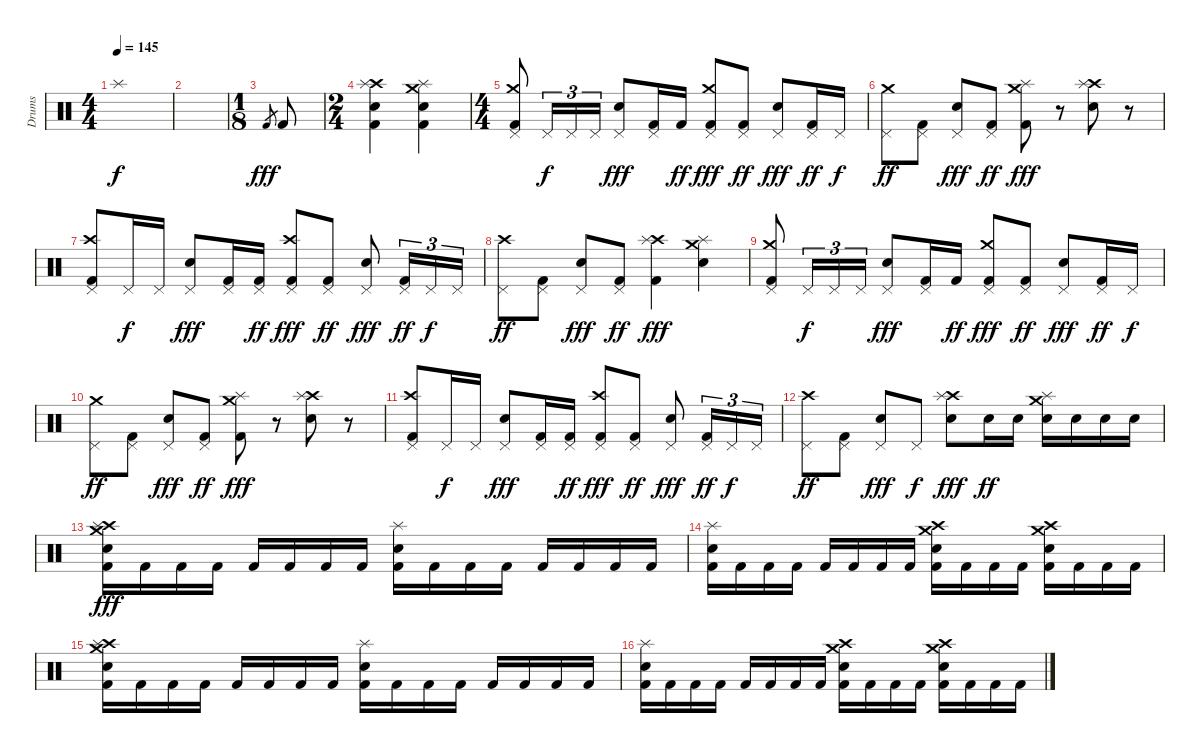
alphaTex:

\track ("Drums" "Drums") {instrument percussion}
\staff {score}
\articulation defaults
\ts (4 4)
\tempo 145
\clef neutral
\ks c "Splash (hit)".1{dy f}
|
|
\ts (1 8)
"Kick (hit) 2".8{gr dy fff} "Kick (hit) 2".8 |
\ts (2 4)
("Crash high (hit)" "Splash (hit)" "Snare (hit) 2" "Kick (hit) 2").4 ("Crash medium (hit)" "Splash (hit)" "Snare (hit) 2" "Kick (hit) 2").4 |
\ts (4 4)
("Crash medium (hit)" "Pedal Hi-Hat (hit)" "Kick (hit) 2").8 "Pedal Hi-Hat (hit)".16{tu (3 2) dy f} "Pedal Hi-Hat (hit)".16{tu (3 2)} "Pedal Hi-Hat (hit)".16{tu (3 2)} ("Pedal Hi-Hat (hit)" "Snare (hit) 2").8{dy fff} ("Pedal Hi-Hat (hit)" "Kick (hit) 2").16 "Kick (hit) 2".16{dy ff} ("Crash medium (hit)" "Pedal Hi-Hat (hit)" "Kick (hit) 2").8{dy fff} ("Pedal Hi-Hat (hit)" "Kick (hit) 2").8{dy ff} ("Pedal Hi-Hat (hit)" "Snare (hit) 2").8{dy fff} ("Pedal Hi-Hat (hit)" "Kick (hit) 2").16{dy ff} "Pedal Hi-Hat (hit)".16{dy f} |
("Crash medium (hit)" "Pedal Hi-Hat (hit)").8{dy ff} ("Pedal Hi-Hat (hit)" "Kick (hit) 2").8 ("Pedal Hi-Hat (hit)" "Snare (hit) 2").8{dy fff} ("Pedal Hi-Hat (hit)" "Kick (hit) 2").8{dy ff} ("Crash medium (hit)" "Splash (hit)" "Kick (hit) 2").8{dy fff} r.8 ("Crash high (hit)" "Splash (hit)" "Snare (hit) 2").8 r.8 |
("Crash high (hit)" "Pedal Hi-Hat (hit)" "Kick (hit) 2").8 "Pedal Hi-Hat (hit)".16{dy f} "Pedal Hi-Hat (hit)".16 ("Pedal Hi-Hat (hit)" "Snare (hit) 2").8{dy fff} ("Pedal Hi-Hat (hit)" "Kick (hit) 2").16 ("Pedal Hi-Hat (hit)" "Kick (hit) 2").16{dy ff} ("Crash high (hit)" "Pedal Hi-Hat (hit)" "Kick (hit) 2").8{dy fff} ("Pedal Hi-Hat (hit)" "Kick (hit) 2").8{dy ff} ("Pedal Hi-Hat (hit)" "Snare (hit) 2").8{dy fff} ("Pedal Hi-Hat (hit)" "Kick (hit) 2").16{tu (3 2) dy ff} "Pedal Hi-Hat (hit)".16{tu (3 2) dy f} "Pedal Hi-Hat (hit)".16{tu (3 2)} |
("Crash high (hit)" "Pedal Hi-Hat (hit)").8{dy ff} ("Pedal Hi-Hat (hit)" "Kick (hit) 2").8 ("Pedal Hi-Hat (hit)" "Snare (hit) 2").8{dy fff} ("Pedal Hi-Hat (hit)" "Kick (hit) 2").8{dy ff} ("Crash high (hit)" "Splash (hit)" "Kick (hit) 2").4{dy fff} ("Crash medium (hit)" "Splash (hit)" "Snare (hit) 2").4 |
("Crash medium (hit)" "Pedal Hi-Hat (hit)" "Kick (hit) 2").8 "Pedal Hi-Hat (hit)".16{tu (3 2) dy f} "Pedal Hi-Hat (hit)".16{tu (3 2)} "Pedal Hi-Hat (hit)".16{tu (3 2)} ("Pedal Hi-Hat (hit)" "Snare (hit) 2").8{dy fff} ("Pedal Hi-Hat (hit)" "Kick (hit) 2").16 "Kick (hit) 2".16{dy ff} ("Crash medium (hit)" "Pedal Hi-Hat (hit)" "Kick (hit) 2").8{dy fff} ("Pedal Hi-Hat (hit)" "Kick (hit) 2").8{dy ff} ("Pedal Hi-Hat (hit)" "Snare (hit) 2").8{dy fff} ("Pedal Hi-Hat (hit)" "Kick (hit) 2").16{dy ff} "Pedal Hi-Hat (hit)".16{dy f} |
("Crash medium (hit)" "Pedal Hi-Hat (hit)").8{dy ff} ("Pedal Hi-Hat (hit)" "Kick (hit) 2").8 ("Pedal Hi-Hat (hit)" "Snare (hit) 2").8{dy fff} ("Pedal Hi-Hat (hit)" "Kick (hit) 2").8{dy ff} ("Crash medium (hit)" "Splash (hit)" "Kick (hit) 2").8{dy fff} r.8 ("Crash high (hit)" "Splash (hit)" "Snare (hit) 2").8 r.8 |
("Crash high (hit)" "Pedal Hi-Hat (hit)" "Kick (hit) 2").8 "Pedal Hi-Hat (hit)".16{dy f} "Pedal Hi-Hat (hit)".16 ("Pedal Hi-Hat (hit)" "Snare (hit) 2").8{dy fff} ("Pedal Hi-Hat (hit)" "Kick (hit) 2").16 ("Pedal Hi-Hat (hit)" "Kick (hit) 2").16{dy ff} ("Crash high (hit)" "Pedal Hi-Hat (hit)" "Kick (hit) 2").8{dy fff} ("Pedal Hi-Hat (hit)" "Kick (hit) 2").8{dy ff} ("Pedal Hi-Hat (hit)" "Snare (hit) 2").8{dy fff} ("Pedal Hi-Hat (hit)" "Kick (hit) 2").16{tu (3 2) dy ff} "Pedal Hi-Hat (hit)".16{tu (3 2) dy f} "Pedal Hi-Hat (hit)".16{tu (3 2)} |
("Crash high (hit)" "Pedal Hi-Hat (hit)").8{dy ff} ("Pedal Hi-Hat (hit)" "Kick (hit) 2").8 ("Pedal Hi-Hat (hit)" "Snare (hit) 2").8{dy fff} "Pedal Hi-Hat (hit)".8{dy f} ("Crash high (hit)" "Splash (hit)" "Snare (hit) 2").8{dy fff} "Snare (hit) 2".16{dy ff} "Snare (hit) 2".16 ("Crash medium (hit)" "Splash (hit)" "Snare (hit) 2").16 "Snare (hit) 2".16 "Snare (hit) 2".16 "Snare (hit) 2".16 |
("Crash high (hit)" "Crash medium (hit)" "Splash (hit)" "Snare (hit) 2" "Kick (hit) 2").16{dy fff} "Kick (hit) 2".16 "Kick (hit) 2".16 "Kick (hit) 2".16 "Kick (hit) 2".16 "Kick (hit) 2".16 "Kick (hit) 2".16 "Kick (hit) 2".16 ("Splash (hit)" "Snare (hit) 2" "Kick (hit) 2").16 "Kick (hit) 2".16 "Kick (hit) 2".16 "Kick (hit) 2".16 "Kick (hit) 2".16 "Kick (hit) 2".16 "Kick (hit) 2".16 "Kick (hit) 2".16 |
("Splash (hit)" "Snare (hit) 2" "Kick (hit) 2").16 "Kick (hit) 2".16 "Kick (hit) 2".16 "Kick (hit) 2".16 "Kick (hit) 2".16 "Kick (hit) 2".16 "Kick (hit) 2".16 "Kick (hit) 2".16 ("Crash high (hit)" "Crash medium (hit)" "Snare (hit) 2" "Kick (hit) 2").16 "Kick (hit) 2".16 "Kick (hit) 2".16 "Kick (hit) 2".16 ("Crash high (hit)" "Crash medium (hit)" "Snare (hit) 2" "Kick (hit) 2").16 "Kick (hit) 2".16 "Kick (hit) 2".16 "Kick (hit) 2".16 |
("Crash high (hit)" "Crash medium (hit)" "Splash (hit)" "Snare (hit) 2" "Kick (hit) 2").16 "Kick (hit) 2".16 "Kick (hit) 2".16 "Kick (hit) 2".16 "Kick (hit) 2".16 "Kick (hit) 2".16 "Kick (hit) 2".16 "Kick (hit) 2".16 ("Splash (hit)" "Snare (hit) 2" "Kick (hit) 2").16 "Kick (hit) 2".16 "Kick (hit) 2".16 "Kick (hit) 2".16 "Kick (hit) 2".16 "Kick (hit) 2".16 "Kick (hit) 2".16 "Kick (hit) 2".16 |
("Splash (hit)" "Snare (hit) 2" "Kick (hit) 2").16 "Kick (hit) 2".16 "Kick (hit) 2".16 "Kick (hit) 2".16 "Kick (hit) 2".16 "Kick (hit) 2".16 "Kick (hit) 2".16 "Kick (hit) 2".16 ("Crash high (hit)" "Crash medium (hit)" "Snare (hit) 2" "Kick (hit) 2").16 "Kick (hit) 2".16 "Kick (hit) 2".16 "Kick (hit) 2".16 ("Crash high (hit)" "Crash medium (hit)" "Snare (hit) 2" "Kick (hit) 2").16 "Kick (hit) 2".16 "Kick (hit) 2".16 "Kick (hit) 2".16
